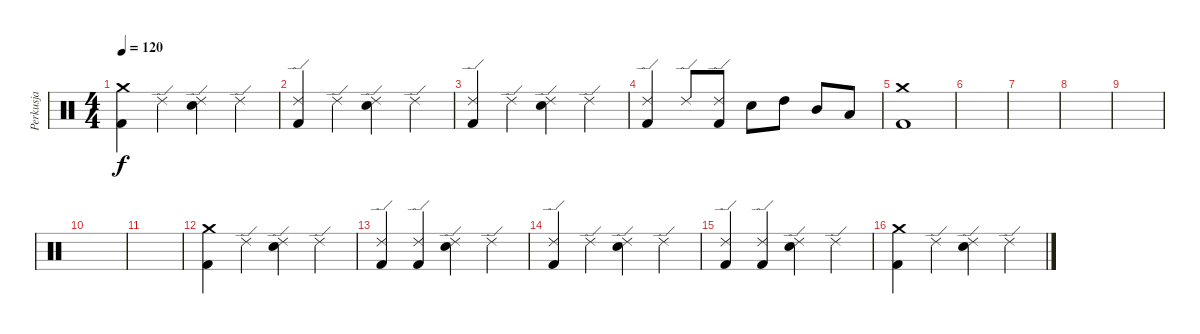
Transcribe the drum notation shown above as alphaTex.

\track ("Perkusja" "Perkusja") {instrument percussion}
\staff {score}
\articulation defaults
\ts (4 4)
\tempo 120
\clef neutral
\ks c
("Crash medium (hit)" "Kick (hit) 2").4{dy f} "Ride (edge) 2".4 ("Ride (edge) 2" "Snare (hit) 2").4 "Ride (edge) 2".4 |
("Ride (edge) 2" "Kick (hit) 2").4 "Ride (edge) 2".4 ("Ride (edge) 2" "Snare (hit) 2").4 "Ride (edge) 2".4 |
("Ride (edge) 2" "Kick (hit) 2").4 "Ride (edge) 2".4 ("Ride (edge) 2" "Snare (hit) 2").4 "Ride (edge) 2".4 |
("Ride (edge) 2" "Kick (hit) 2").4 "Ride (edge) 2".8 ("Ride (edge) 2" "Kick (hit) 2").8 "Snare (hit) 2".8 "High Tom (hit)".8 "Mid Tom (hit)".8 "Low Tom (hit)".8 |
("Crash medium (hit)" "Kick (hit) 2").1 |
|
|
|
|
|
|
("Crash medium (hit)" "Kick (hit) 2").4 "Ride (edge) 2".4 ("Ride (edge) 2" "Snare (hit) 2").4 "Ride (edge) 2".4 |
("Ride (edge) 2" "Kick (hit) 2").4 ("Ride (edge) 2" "Kick (hit) 2").4 ("Ride (edge) 2" "Snare (hit) 2").4 "Ride (edge) 2".4 |
("Ride (edge) 2" "Kick (hit) 2").4 "Ride (edge) 2".4 ("Ride (edge) 2" "Snare (hit) 2").4 "Ride (edge) 2".4 |
("Ride (edge) 2" "Kick (hit) 2").4 ("Ride (edge) 2" "Kick (hit) 2").4 ("Ride (edge) 2" "Snare (hit) 2").4 "Ride (edge) 2".4 |
("Crash medium (hit)" "Kick (hit) 2").4 "Ride (edge) 2".4 ("Ride (edge) 2" "Snare (hit) 2").4 "Ride (edge) 2".4
